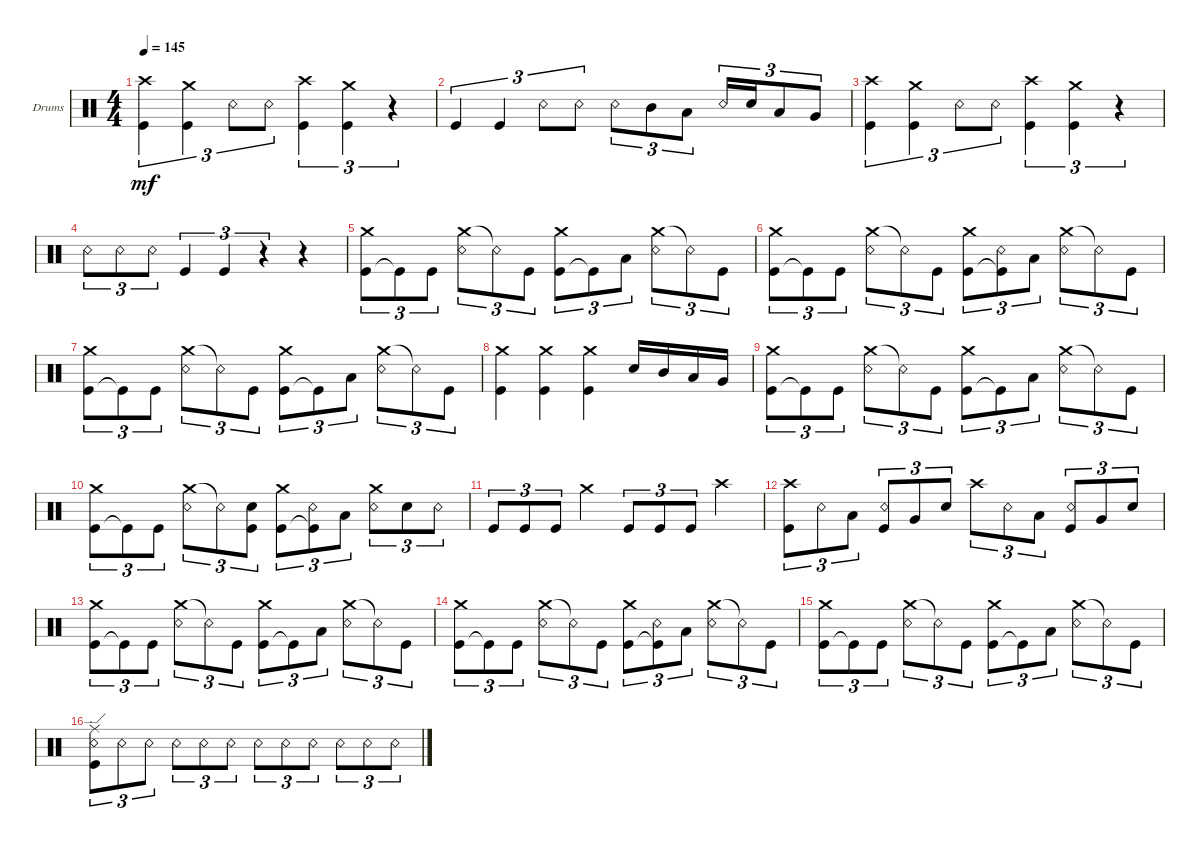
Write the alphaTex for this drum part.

\defaultSystemsLayout 4
\bracketExtendMode groupsimilarinstruments
\firstSystemTrackNameOrientation horizontal
\otherSystemsTrackNameOrientation horizontal
\track ("Drums" "Drums") {instrument percussion}
\staff {score}
\articulation defaults
\ts (4 4)
\tempo 145
\clef neutral
\ks c
("Kick (hit)" "Crash high (hit)").4{tu (3 2) dy mf} ("Kick (hit)" "Crash medium (hit)").4{tu (3 2)} "Snare (rim shot)".8{tu (3 2)} "Snare (rim shot)".8{tu (3 2)} ("Kick (hit)" "Crash high (hit)").4{tu (3 2)} ("Kick (hit)" "Crash medium (hit)").4{tu (3 2)} r.4{tu (3 2)} |
"Kick (hit)".4{tu (3 2)} "Kick (hit)".4{tu (3 2)} "Snare (rim shot)".8{tu (3 2)} "Snare (rim shot)".8{tu (3 2)} "Snare (rim shot)".8{tu (3 2)} "Mid Tom (hit)".8{tu (3 2)} "Low Tom (hit)".8{tu (3 2)} "Snare (rim shot)".16{tu (3 2)} "Snare (hit) 2".16{tu (3 2)} "Low Tom (hit)".8{tu (3 2)} "Very Low Tom (hit)".8{tu (3 2)} |
("Kick (hit)" "Crash high (hit)").4{tu (3 2)} ("Kick (hit)" "Crash medium (hit)").4{tu (3 2)} "Snare (rim shot)".8{tu (3 2)} "Snare (rim shot)".8{tu (3 2)} ("Kick (hit)" "Crash high (hit)").4{tu (3 2)} ("Kick (hit)" "Crash medium (hit)").4{tu (3 2)} r.4{tu (3 2)} |
"Snare (rim shot)".8{tu (3 2)} "Snare (rim shot)".8{tu (3 2)} "Snare (rim shot)".8{tu (3 2)} "Kick (hit)".4{tu (3 2)} "Kick (hit)".4{tu (3 2)} r.4{tu (3 2)} r.4 |
("Kick (hit)" "Crash medium (hit)").8{tu (3 2)} "Kick (hit)"{t}.8{tu (3 2)} "Kick (hit)".8{tu (3 2)} ("Crash medium (hit)" "Snare (rim shot)").8{tu (3 2)} "Snare (rim shot)"{t}.8{tu (3 2)} "Kick (hit)".8{tu (3 2)} ("Kick (hit)" "Crash medium (hit)").8{tu (3 2)} "Kick (hit)"{t}.8{tu (3 2)} "Low Tom (hit)".8{tu (3 2)} ("Crash medium (hit)" "Snare (rim shot)").8{tu (3 2)} "Snare (rim shot)"{t}.8{tu (3 2)} "Kick (hit)".8{tu (3 2)} |
("Kick (hit)" "Crash medium (hit)").8{tu (3 2)} "Kick (hit)"{t}.8{tu (3 2)} "Kick (hit)".8{tu (3 2)} ("Crash medium (hit)" "Snare (rim shot)").8{tu (3 2)} "Snare (rim shot)"{t}.8{tu (3 2)} "Kick (hit)".8{tu (3 2)} ("Kick (hit)" "Crash medium (hit)").8{tu (3 2)} ("Kick (hit)"{t} "Snare (rim shot)").8{tu (3 2)} "Low Tom (hit)".8{tu (3 2)} ("Crash medium (hit)" "Snare (rim shot)").8{tu (3 2)} "Snare (rim shot)"{t}.8{tu (3 2)} "Kick (hit)".8{tu (3 2)} |
("Kick (hit)" "Crash medium (hit)").8{tu (3 2)} "Kick (hit)"{t}.8{tu (3 2)} "Kick (hit)".8{tu (3 2)} ("Crash medium (hit)" "Snare (rim shot)").8{tu (3 2)} "Snare (rim shot)"{t}.8{tu (3 2)} "Kick (hit)".8{tu (3 2)} ("Kick (hit)" "Crash medium (hit)").8{tu (3 2)} "Kick (hit)"{t}.8{tu (3 2)} "Low Tom (hit)".8{tu (3 2)} ("Crash medium (hit)" "Snare (rim shot)").8{tu (3 2)} "Snare (rim shot)"{t}.8{tu (3 2)} "Kick (hit)".8{tu (3 2)} |
("Kick (hit)" "Crash medium (hit)").4 ("Kick (hit)" "Crash medium (hit)").4 ("Kick (hit)" "Crash medium (hit)").4 "Snare (hit) 2".16 "Mid Tom (hit)".16 "Low Tom (hit)".16 "Very Low Tom (hit)".16 |
("Kick (hit)" "Crash medium (hit)").8{tu (3 2)} "Kick (hit)"{t}.8{tu (3 2)} "Kick (hit)".8{tu (3 2)} ("Crash medium (hit)" "Snare (rim shot)").8{tu (3 2)} "Snare (rim shot)"{t}.8{tu (3 2)} "Kick (hit)".8{tu (3 2)} ("Kick (hit)" "Crash medium (hit)").8{tu (3 2)} "Kick (hit)"{t}.8{tu (3 2)} "Low Tom (hit)".8{tu (3 2)} ("Crash medium (hit)" "Snare (rim shot)").8{tu (3 2)} "Snare (rim shot)"{t}.8{tu (3 2)} "Kick (hit)".8{tu (3 2)} |
("Kick (hit)" "Crash medium (hit)").8{tu (3 2)} "Kick (hit)"{t}.8{tu (3 2)} "Kick (hit)".8{tu (3 2)} ("Crash medium (hit)" "Snare (rim shot)").8{tu (3 2)} "Snare (rim shot)"{t}.8{tu (3 2)} ("Kick (hit)" "Snare (hit) 2").8{tu (3 2)} ("Kick (hit)" "Crash medium (hit)").8{tu (3 2)} ("Kick (hit)"{t} "Snare (rim shot)").8{tu (3 2)} "Low Tom (hit)".8{tu (3 2)} ("Crash medium (hit)" "Snare (rim shot)").8{tu (3 2)} "Snare (hit) 2".8{tu (3 2)} "Snare (rim shot)".8{tu (3 2)} |
"Kick (hit)".8{tu (3 2)} "Kick (hit)".8{tu (3 2)} "Kick (hit)".8{tu (3 2)} "Crash medium (hit)".4 "Kick (hit)".8{tu (3 2)} "Kick (hit)".8{tu (3 2)} "Kick (hit)".8{tu (3 2)} "Crash high (hit)".4 |
("Kick (hit)" "Crash high (hit)").8{tu (3 2)} "Snare (rim shot)".8{tu (3 2)} "Low Tom (hit)".8{tu (3 2)} ("Kick (hit)" "Snare (rim shot)").8{tu (3 2)} "Very Low Tom (hit)".8{tu (3 2)} "Snare (hit) 2".8{tu (3 2)} "Crash high (hit)".8{tu (3 2)} "Snare (rim shot)".8{tu (3 2)} "Low Tom (hit)".8{tu (3 2)} ("Kick (hit)" "Snare (rim shot)").8{tu (3 2)} "Very Low Tom (hit)".8{tu (3 2)} "Snare (hit) 2".8{tu (3 2)} |
("Kick (hit)" "Crash medium (hit)").8{tu (3 2)} "Kick (hit)"{t}.8{tu (3 2)} "Kick (hit)".8{tu (3 2)} ("Crash medium (hit)" "Snare (rim shot)").8{tu (3 2)} "Snare (rim shot)"{t}.8{tu (3 2)} "Kick (hit)".8{tu (3 2)} ("Kick (hit)" "Crash medium (hit)").8{tu (3 2)} "Kick (hit)"{t}.8{tu (3 2)} "Low Tom (hit)".8{tu (3 2)} ("Crash medium (hit)" "Snare (rim shot)").8{tu (3 2)} "Snare (rim shot)"{t}.8{tu (3 2)} "Kick (hit)".8{tu (3 2)} |
("Kick (hit)" "Crash medium (hit)").8{tu (3 2)} "Kick (hit)"{t}.8{tu (3 2)} "Kick (hit)".8{tu (3 2)} ("Crash medium (hit)" "Snare (rim shot)").8{tu (3 2)} "Snare (rim shot)"{t}.8{tu (3 2)} "Kick (hit)".8{tu (3 2)} ("Kick (hit)" "Crash medium (hit)").8{tu (3 2)} ("Kick (hit)"{t} "Snare (rim shot)").8{tu (3 2)} "Low Tom (hit)".8{tu (3 2)} ("Crash medium (hit)" "Snare (rim shot)").8{tu (3 2)} "Snare (rim shot)"{t}.8{tu (3 2)} "Kick (hit)".8{tu (3 2)} |
("Kick (hit)" "Crash medium (hit)").8{tu (3 2)} "Kick (hit)"{t}.8{tu (3 2)} "Kick (hit)".8{tu (3 2)} ("Crash medium (hit)" "Snare (rim shot)").8{tu (3 2)} "Snare (rim shot)"{t}.8{tu (3 2)} "Kick (hit)".8{tu (3 2)} ("Kick (hit)" "Crash medium (hit)").8{tu (3 2)} "Kick (hit)"{t}.8{tu (3 2)} "Low Tom (hit)".8{tu (3 2)} ("Crash medium (hit)" "Snare (rim shot)").8{tu (3 2)} "Snare (rim shot)"{t}.8{tu (3 2)} "Kick (hit)".8{tu (3 2)} |
("Snare (rim shot)" "Kick (hit)" "Ride (edge)").8{tu (3 2)} "Snare (rim shot)".8{tu (3 2)} "Snare (rim shot)".8{tu (3 2)} "Snare (rim shot)".8{tu (3 2)} "Snare (rim shot)".8{tu (3 2)} "Snare (rim shot)".8{tu (3 2)} "Snare (rim shot)".8{tu (3 2)} "Snare (rim shot)".8{tu (3 2)} "Snare (rim shot)".8{tu (3 2)} "Snare (rim shot)".8{tu (3 2)} "Snare (rim shot)".8{tu (3 2)} "Snare (rim shot)".8{tu (3 2)}
